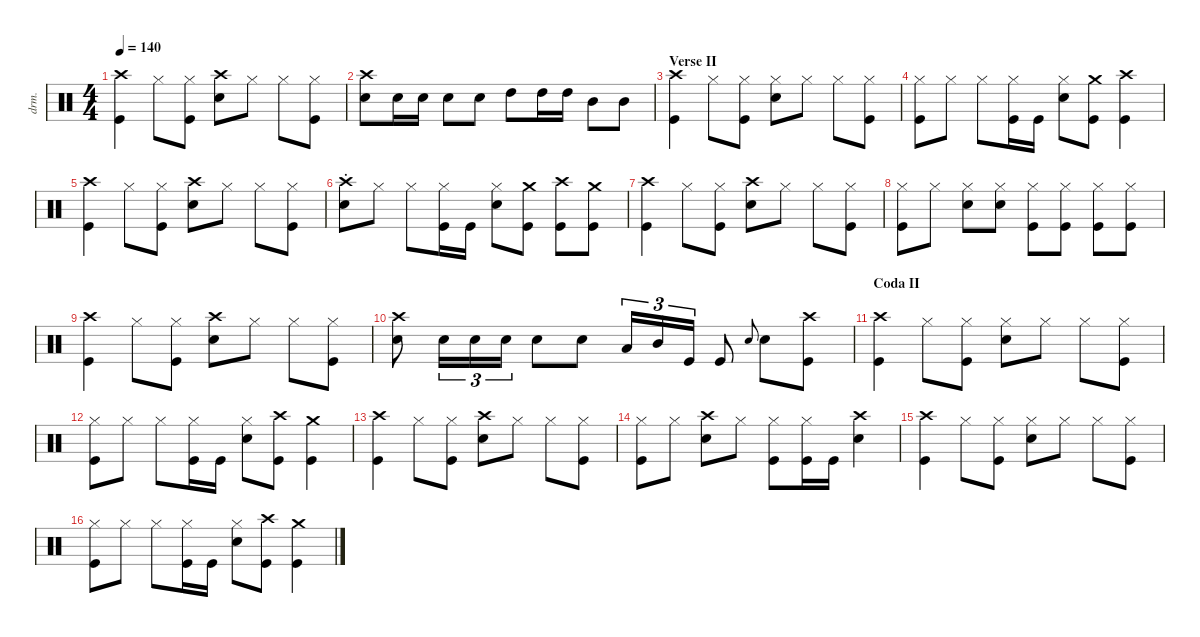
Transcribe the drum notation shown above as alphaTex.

\defaultSystemsLayout 4
\hideDynamics
\bracketExtendMode nobrackets
\otherSystemsTrackNameOrientation horizontal
\track ("Drums" "drm.") {multiBarRest instrument percussion}
\staff
\articulation defaults
\ts (4 4)
\tempo 140
\clef neutral
\ks c
("Crash high (hit)" "Kick (hit)").4{dy f} "Hi-Hat (closed)".8 ("Hi-Hat (closed)" "Kick (hit)").8 ("Snare (hit) 2" "Crash high (hit)").8 "Hi-Hat (closed)".8 "Hi-Hat (closed)".8 ("Hi-Hat (closed)" "Kick (hit)").8 |
("Crash high (hit)" "Snare (hit) 2").8 "Snare (hit) 2".16 "Snare (hit) 2".16 "Snare (hit) 2".8 "Snare (hit) 2".8 "High Tom (hit)".8{dy ff} "High Tom (hit)".16 "High Tom (hit)".16 "Mid Tom (hit)".8 "Mid Tom (hit)".8 |
\section ("" "Verse II")
("Crash high (hit)" "Kick (hit)").4{dy f} "Hi-Hat (closed)".8 ("Hi-Hat (closed)" "Kick (hit)").8 ("Hi-Hat (closed)" "Snare (hit) 2").8 "Hi-Hat (closed)".8 "Hi-Hat (closed)".8 ("Hi-Hat (closed)" "Kick (hit)").8 |
("Kick (hit)" "Hi-Hat (closed)").8 "Hi-Hat (closed)".8 "Hi-Hat (closed)".8 ("Hi-Hat (closed)" "Kick (hit)").16 "Kick (hit)".16 ("Snare (hit) 2" "Hi-Hat (closed)").8 ("Crash medium (hit)" "Kick (hit)").8 ("Crash high (hit)" "Kick (hit)").4 |
("Crash high (hit)" "Kick (hit)").4 "Hi-Hat (closed)".8 ("Hi-Hat (closed)" "Kick (hit)").8 ("Snare (hit) 2" "Crash high (hit)").8 "Hi-Hat (closed)".8 "Hi-Hat (closed)".8 ("Hi-Hat (closed)" "Kick (hit)").8 |
("Snare (hit) 2" "Crash high (hit)"{st}).8 "Hi-Hat (closed)".8 "Hi-Hat (closed)".8 ("Hi-Hat (closed)" "Kick (hit)").16 "Kick (hit)".16 ("Snare (hit) 2" "Hi-Hat (closed)").8 ("Crash medium (hit)" "Kick (hit)").8 ("Crash high (hit)" "Kick (hit)").8 ("Crash medium (hit)" "Kick (hit)").8 |
("Crash high (hit)" "Kick (hit)").4 "Hi-Hat (closed)".8 ("Hi-Hat (closed)" "Kick (hit)").8 ("Snare (hit) 2" "Crash high (hit)").8 "Hi-Hat (closed)".8 "Hi-Hat (closed)".8 ("Hi-Hat (closed)" "Kick (hit)").8 |
("Kick (hit)" "Hi-Hat (closed)").8 "Hi-Hat (closed)".8 ("Hi-Hat (closed)" "Snare (hit) 2").8 ("Hi-Hat (closed)" "Snare (hit) 2").8 ("Hi-Hat (closed)" "Kick (hit)").8 ("Hi-Hat (closed)" "Kick (hit)").8 ("Hi-Hat (closed)" "Kick (hit)").8 ("Hi-Hat (closed)" "Kick (hit)").8 |
("Crash high (hit)" "Kick (hit)").4 "Hi-Hat (closed)".8 ("Hi-Hat (closed)" "Kick (hit)").8 ("Snare (hit) 2" "Crash high (hit)").8 "Hi-Hat (closed)".8 "Hi-Hat (closed)".8 ("Hi-Hat (closed)" "Kick (hit)").8 |
("Snare (hit) 2" "Crash high (hit)").8 "Snare (hit) 2".16{tu (3 2) dy mf} "Snare (hit) 2".16{tu (3 2)} "Snare (hit) 2".16{tu (3 2)} "Snare (hit) 2".8 "Snare (hit) 2".8 "Low Tom (hit)".16{tu (3 2) dy ff} "Mid Tom (hit)".16{tu (3 2)} "Kick (hit)".16{tu (3 2) dy f} "Kick (hit)".8 "Snare (hit) 2".8{gr onbeat} "Snare (hit) 2".8 ("Kick (hit)" "Crash high (hit)").8 |
\section ("" "Coda II")
("Crash high (hit)" "Kick (hit)").4 "Hi-Hat (closed)".8 ("Hi-Hat (closed)" "Kick (hit)").8 ("Hi-Hat (closed)" "Snare (hit) 2").8 "Hi-Hat (closed)".8 "Hi-Hat (closed)".8 ("Hi-Hat (closed)" "Kick (hit)").8 |
("Kick (hit)" "Hi-Hat (closed)").8 "Hi-Hat (closed)".8 "Hi-Hat (closed)".8 ("Hi-Hat (closed)" "Kick (hit)").16 "Kick (hit)".16 ("Snare (hit) 2" "Hi-Hat (closed)").8 ("Kick (hit)" "Crash high (hit)").8 ("Kick (hit)" "Crash medium (hit)").4 |
("Crash high (hit)" "Kick (hit)").4 "Hi-Hat (closed)".8 ("Hi-Hat (closed)" "Kick (hit)").8 ("Snare (hit) 2" "Crash high (hit)").8 "Hi-Hat (closed)".8 "Hi-Hat (closed)".8 ("Hi-Hat (closed)" "Kick (hit)").8 |
("Kick (hit)" "Hi-Hat (closed)").8 "Hi-Hat (closed)".8 ("Snare (hit) 2" "Crash high (hit)").8 "Hi-Hat (closed)".8 ("Kick (hit)" "Hi-Hat (closed)").8 ("Hi-Hat (closed)" "Kick (hit)").16 "Kick (hit)".16 ("Snare (hit) 2" "Crash high (hit)").4 |
("Crash high (hit)" "Kick (hit)").4 "Hi-Hat (closed)".8 ("Hi-Hat (closed)" "Kick (hit)").8 ("Hi-Hat (closed)" "Snare (hit) 2").8 "Hi-Hat (closed)".8 "Hi-Hat (closed)".8 ("Hi-Hat (closed)" "Kick (hit)").8 |
("Kick (hit)" "Hi-Hat (closed)").8 "Hi-Hat (closed)".8 "Hi-Hat (closed)".8 ("Hi-Hat (closed)" "Kick (hit)").16 "Kick (hit)".16 ("Snare (hit) 2" "Hi-Hat (closed)").8 ("Kick (hit)" "Crash high (hit)").8 ("Kick (hit)" "Crash medium (hit)").4
